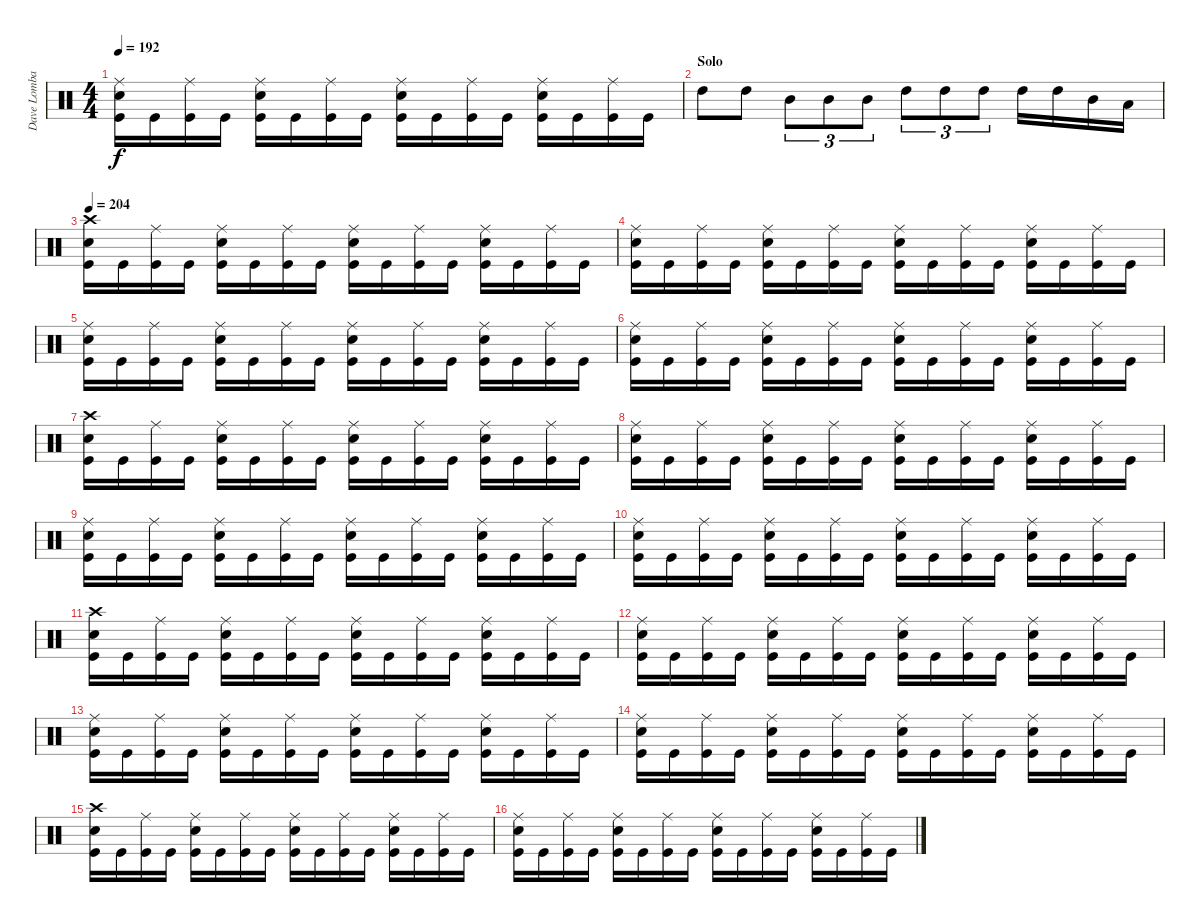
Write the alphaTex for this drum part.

\track ("Dave Lombardo" "Dave Lomba") {instrument percussion}
\staff {score}
\articulation defaults
\ts (4 4)
\tempo 192
\clef neutral
\ks c
("Ride (middle)" "Electric Snare (hit)" "Kick (hit)").16{dy f} "Kick (hit)".16 ("Ride (middle)" "Kick (hit)").16 "Kick (hit)".16 ("Ride (middle)" "Electric Snare (hit)" "Kick (hit)").16 "Kick (hit)".16 ("Ride (middle)" "Kick (hit)").16 "Kick (hit)".16 ("Ride (middle)" "Electric Snare (hit)" "Kick (hit)").16 "Kick (hit)".16 ("Ride (middle)" "Kick (hit)").16 "Kick (hit)".16 ("Ride (middle)" "Electric Snare (hit)" "Kick (hit)").16 "Kick (hit)".16 ("Ride (middle)" "Kick (hit)").16 "Kick (hit)".16 |
\section ("" "Solo")
"High Tom (hit)".8 "High Tom (hit)".8 "Mid Tom (hit)".8{tu (3 2)} "Mid Tom (hit)".8{tu (3 2)} "Mid Tom (hit)".8{tu (3 2)} "High Tom (hit)".8{tu (3 2)} "High Tom (hit)".8{tu (3 2)} "High Tom (hit)".8{tu (3 2)} "High Tom (hit)".16 "High Tom (hit)".16 "Mid Tom (hit)".16 "Low Tom (hit)".16 |
\tempo 204
("Crash high (hit)" "Electric Snare (hit)" "Kick (hit)").16 "Kick (hit)".16 ("Ride (middle)" "Kick (hit)").16 "Kick (hit)".16 ("Ride (middle)" "Electric Snare (hit)" "Kick (hit)").16 "Kick (hit)".16 ("Ride (middle)" "Kick (hit)").16 "Kick (hit)".16 ("Ride (middle)" "Electric Snare (hit)" "Kick (hit)").16 "Kick (hit)".16 ("Ride (middle)" "Kick (hit)").16 "Kick (hit)".16 ("Ride (middle)" "Electric Snare (hit)" "Kick (hit)").16 "Kick (hit)".16 ("Ride (middle)" "Kick (hit)").16 "Kick (hit)".16 |
("Ride (middle)" "Electric Snare (hit)" "Kick (hit)").16 "Kick (hit)".16 ("Ride (middle)" "Kick (hit)").16 "Kick (hit)".16 ("Ride (middle)" "Electric Snare (hit)" "Kick (hit)").16 "Kick (hit)".16 ("Ride (middle)" "Kick (hit)").16 "Kick (hit)".16 ("Ride (middle)" "Electric Snare (hit)" "Kick (hit)").16 "Kick (hit)".16 ("Ride (middle)" "Kick (hit)").16 "Kick (hit)".16 ("Ride (middle)" "Electric Snare (hit)" "Kick (hit)").16 "Kick (hit)".16 ("Ride (middle)" "Kick (hit)").16 "Kick (hit)".16 |
("Ride (middle)" "Electric Snare (hit)" "Kick (hit)").16 "Kick (hit)".16 ("Ride (middle)" "Kick (hit)").16 "Kick (hit)".16 ("Ride (middle)" "Electric Snare (hit)" "Kick (hit)").16 "Kick (hit)".16 ("Ride (middle)" "Kick (hit)").16 "Kick (hit)".16 ("Ride (middle)" "Electric Snare (hit)" "Kick (hit)").16 "Kick (hit)".16 ("Ride (middle)" "Kick (hit)").16 "Kick (hit)".16 ("Ride (middle)" "Electric Snare (hit)" "Kick (hit)").16 "Kick (hit)".16 ("Ride (middle)" "Kick (hit)").16 "Kick (hit)".16 |
("Ride (middle)" "Electric Snare (hit)" "Kick (hit)").16 "Kick (hit)".16 ("Ride (middle)" "Kick (hit)").16 "Kick (hit)".16 ("Ride (middle)" "Electric Snare (hit)" "Kick (hit)").16 "Kick (hit)".16 ("Ride (middle)" "Kick (hit)").16 "Kick (hit)".16 ("Ride (middle)" "Electric Snare (hit)" "Kick (hit)").16 "Kick (hit)".16 ("Ride (middle)" "Kick (hit)").16 "Kick (hit)".16 ("Ride (middle)" "Electric Snare (hit)" "Kick (hit)").16 "Kick (hit)".16 ("Ride (middle)" "Kick (hit)").16 "Kick (hit)".16 |
("Crash high (hit)" "Electric Snare (hit)" "Kick (hit)").16 "Kick (hit)".16 ("Ride (middle)" "Kick (hit)").16 "Kick (hit)".16 ("Ride (middle)" "Electric Snare (hit)" "Kick (hit)").16 "Kick (hit)".16 ("Ride (middle)" "Kick (hit)").16 "Kick (hit)".16 ("Ride (middle)" "Electric Snare (hit)" "Kick (hit)").16 "Kick (hit)".16 ("Ride (middle)" "Kick (hit)").16 "Kick (hit)".16 ("Ride (middle)" "Electric Snare (hit)" "Kick (hit)").16 "Kick (hit)".16 ("Ride (middle)" "Kick (hit)").16 "Kick (hit)".16 |
("Ride (middle)" "Electric Snare (hit)" "Kick (hit)").16 "Kick (hit)".16 ("Ride (middle)" "Kick (hit)").16 "Kick (hit)".16 ("Ride (middle)" "Electric Snare (hit)" "Kick (hit)").16 "Kick (hit)".16 ("Ride (middle)" "Kick (hit)").16 "Kick (hit)".16 ("Ride (middle)" "Electric Snare (hit)" "Kick (hit)").16 "Kick (hit)".16 ("Ride (middle)" "Kick (hit)").16 "Kick (hit)".16 ("Ride (middle)" "Electric Snare (hit)" "Kick (hit)").16 "Kick (hit)".16 ("Ride (middle)" "Kick (hit)").16 "Kick (hit)".16 |
("Ride (middle)" "Electric Snare (hit)" "Kick (hit)").16 "Kick (hit)".16 ("Ride (middle)" "Kick (hit)").16 "Kick (hit)".16 ("Ride (middle)" "Electric Snare (hit)" "Kick (hit)").16 "Kick (hit)".16 ("Ride (middle)" "Kick (hit)").16 "Kick (hit)".16 ("Ride (middle)" "Electric Snare (hit)" "Kick (hit)").16 "Kick (hit)".16 ("Ride (middle)" "Kick (hit)").16 "Kick (hit)".16 ("Ride (middle)" "Electric Snare (hit)" "Kick (hit)").16 "Kick (hit)".16 ("Ride (middle)" "Kick (hit)").16 "Kick (hit)".16 |
("Ride (middle)" "Electric Snare (hit)" "Kick (hit)").16 "Kick (hit)".16 ("Ride (middle)" "Kick (hit)").16 "Kick (hit)".16 ("Ride (middle)" "Electric Snare (hit)" "Kick (hit)").16 "Kick (hit)".16 ("Ride (middle)" "Kick (hit)").16 "Kick (hit)".16 ("Ride (middle)" "Electric Snare (hit)" "Kick (hit)").16 "Kick (hit)".16 ("Ride (middle)" "Kick (hit)").16 "Kick (hit)".16 ("Ride (middle)" "Electric Snare (hit)" "Kick (hit)").16 "Kick (hit)".16 ("Ride (middle)" "Kick (hit)").16 "Kick (hit)".16 |
("Crash high (hit)" "Electric Snare (hit)" "Kick (hit)").16 "Kick (hit)".16 ("Ride (middle)" "Kick (hit)").16 "Kick (hit)".16 ("Ride (middle)" "Electric Snare (hit)" "Kick (hit)").16 "Kick (hit)".16 ("Ride (middle)" "Kick (hit)").16 "Kick (hit)".16 ("Ride (middle)" "Electric Snare (hit)" "Kick (hit)").16 "Kick (hit)".16 ("Ride (middle)" "Kick (hit)").16 "Kick (hit)".16 ("Ride (middle)" "Electric Snare (hit)" "Kick (hit)").16 "Kick (hit)".16 ("Ride (middle)" "Kick (hit)").16 "Kick (hit)".16 |
("Ride (middle)" "Electric Snare (hit)" "Kick (hit)").16 "Kick (hit)".16 ("Ride (middle)" "Kick (hit)").16 "Kick (hit)".16 ("Ride (middle)" "Electric Snare (hit)" "Kick (hit)").16 "Kick (hit)".16 ("Ride (middle)" "Kick (hit)").16 "Kick (hit)".16 ("Ride (middle)" "Electric Snare (hit)" "Kick (hit)").16 "Kick (hit)".16 ("Ride (middle)" "Kick (hit)").16 "Kick (hit)".16 ("Ride (middle)" "Electric Snare (hit)" "Kick (hit)").16 "Kick (hit)".16 ("Ride (middle)" "Kick (hit)").16 "Kick (hit)".16 |
("Ride (middle)" "Electric Snare (hit)" "Kick (hit)").16 "Kick (hit)".16 ("Ride (middle)" "Kick (hit)").16 "Kick (hit)".16 ("Ride (middle)" "Electric Snare (hit)" "Kick (hit)").16 "Kick (hit)".16 ("Ride (middle)" "Kick (hit)").16 "Kick (hit)".16 ("Ride (middle)" "Electric Snare (hit)" "Kick (hit)").16 "Kick (hit)".16 ("Ride (middle)" "Kick (hit)").16 "Kick (hit)".16 ("Ride (middle)" "Electric Snare (hit)" "Kick (hit)").16 "Kick (hit)".16 ("Ride (middle)" "Kick (hit)").16 "Kick (hit)".16 |
("Ride (middle)" "Electric Snare (hit)" "Kick (hit)").16 "Kick (hit)".16 ("Ride (middle)" "Kick (hit)").16 "Kick (hit)".16 ("Ride (middle)" "Electric Snare (hit)" "Kick (hit)").16 "Kick (hit)".16 ("Ride (middle)" "Kick (hit)").16 "Kick (hit)".16 ("Ride (middle)" "Electric Snare (hit)" "Kick (hit)").16 "Kick (hit)".16 ("Ride (middle)" "Kick (hit)").16 "Kick (hit)".16 ("Ride (middle)" "Electric Snare (hit)" "Kick (hit)").16 "Kick (hit)".16 ("Ride (middle)" "Kick (hit)").16 "Kick (hit)".16 |
("Crash high (hit)" "Electric Snare (hit)" "Kick (hit)").16 "Kick (hit)".16 ("Ride (middle)" "Kick (hit)").16 "Kick (hit)".16 ("Ride (middle)" "Electric Snare (hit)" "Kick (hit)").16 "Kick (hit)".16 ("Ride (middle)" "Kick (hit)").16 "Kick (hit)".16 ("Ride (middle)" "Electric Snare (hit)" "Kick (hit)").16 "Kick (hit)".16 ("Ride (middle)" "Kick (hit)").16 "Kick (hit)".16 ("Ride (middle)" "Electric Snare (hit)" "Kick (hit)").16 "Kick (hit)".16 ("Ride (middle)" "Kick (hit)").16 "Kick (hit)".16 |
("Ride (middle)" "Electric Snare (hit)" "Kick (hit)").16 "Kick (hit)".16 ("Ride (middle)" "Kick (hit)").16 "Kick (hit)".16 ("Ride (middle)" "Electric Snare (hit)" "Kick (hit)").16 "Kick (hit)".16 ("Ride (middle)" "Kick (hit)").16 "Kick (hit)".16 ("Ride (middle)" "Electric Snare (hit)" "Kick (hit)").16 "Kick (hit)".16 ("Ride (middle)" "Kick (hit)").16 "Kick (hit)".16 ("Ride (middle)" "Electric Snare (hit)" "Kick (hit)").16 "Kick (hit)".16 ("Ride (middle)" "Kick (hit)").16 "Kick (hit)".16
